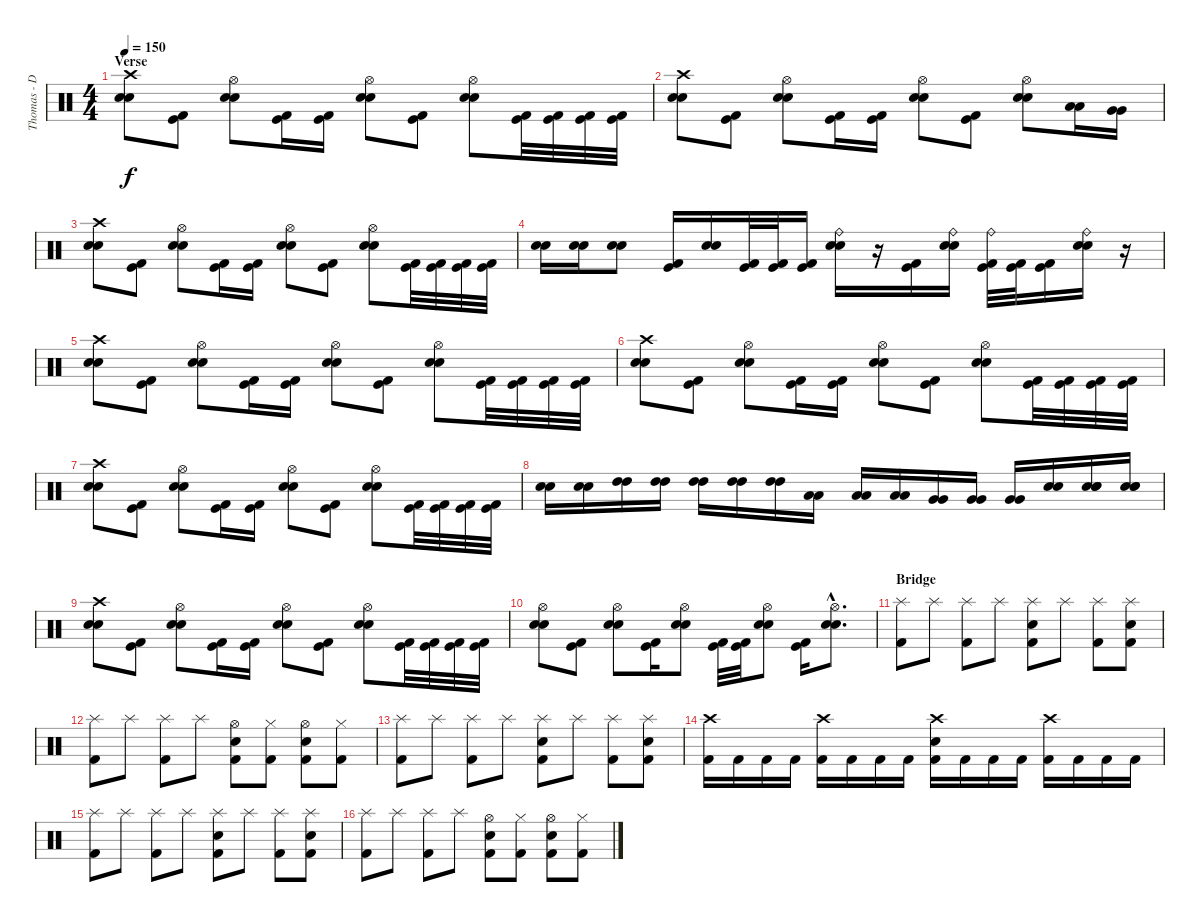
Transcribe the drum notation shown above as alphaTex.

\track ("Thomas - Dr00mz" "Thomas - D") {instrument percussion}
\staff {score}
\articulation defaults
\ts (4 4)
\section ("" "Verse")
\tempo 150
\clef neutral
\ks c
("Crash high (hit)" "Electric Snare (hit)" "Electric Snare (hit)").8{dy f} ("Kick (hit)" "Kick (hit) 2").8 ("Hi-Hat (open)" "Electric Snare (hit)" "Electric Snare (hit)").8 ("Kick (hit)" "Kick (hit) 2").16 ("Kick (hit)" "Kick (hit) 2").16 ("Hi-Hat (open)" "Electric Snare (hit)" "Electric Snare (hit)").8 ("Kick (hit)" "Kick (hit) 2").8 ("Hi-Hat (open)" "Electric Snare (hit)" "Electric Snare (hit)").8 ("Kick (hit)" "Kick (hit) 2").32 ("Kick (hit)" "Kick (hit) 2").32 ("Kick (hit)" "Kick (hit) 2").32 ("Kick (hit)" "Kick (hit) 2").32 |
("Crash high (hit)" "Electric Snare (hit)" "Electric Snare (hit)").8 ("Kick (hit)" "Kick (hit) 2").8 ("Hi-Hat (open)" "Electric Snare (hit)" "Electric Snare (hit)").8 ("Kick (hit)" "Kick (hit) 2").16 ("Kick (hit)" "Kick (hit) 2").16 ("Hi-Hat (open)" "Electric Snare (hit)" "Electric Snare (hit)").8 ("Kick (hit)" "Kick (hit) 2").8 ("Hi-Hat (open)" "Electric Snare (hit)" "Electric Snare (hit)").8 ("Low Tom (hit)" "Low Tom (hit)").16 ("Very Low Tom (hit)" "Very Low Tom (hit)").16 |
("Crash high (hit)" "Electric Snare (hit)" "Electric Snare (hit)").8 ("Kick (hit)" "Kick (hit) 2").8 ("Hi-Hat (open)" "Electric Snare (hit)" "Electric Snare (hit)").8 ("Kick (hit)" "Kick (hit) 2").16 ("Kick (hit)" "Kick (hit) 2").16 ("Hi-Hat (open)" "Electric Snare (hit)" "Electric Snare (hit)").8 ("Kick (hit)" "Kick (hit) 2").8 ("Hi-Hat (open)" "Electric Snare (hit)" "Electric Snare (hit)").8 ("Kick (hit)" "Kick (hit) 2").32 ("Kick (hit)" "Kick (hit) 2").32 ("Kick (hit)" "Kick (hit) 2").32 ("Kick (hit)" "Kick (hit) 2").32 |
("Electric Snare (hit)" "Electric Snare (hit)").16 ("Electric Snare (hit)" "Electric Snare (hit)").16 ("Electric Snare (hit)" "Electric Snare (hit)").8 ("Kick (hit)" "Kick (hit) 2").16 ("Electric Snare (hit)" "Electric Snare (hit)").16 ("Kick (hit)" "Kick (hit) 2").32 ("Kick (hit)" "Kick (hit) 2").32 ("Kick (hit)" "Kick (hit) 2").16 ("Ride (bell)" "Electric Snare (hit)" "Electric Snare (hit)").16 r.16 ("Kick (hit)" "Kick (hit) 2").16 ("Ride (bell)" "Electric Snare (hit)" "Electric Snare (hit)").16 ("Ride (bell)" "Kick (hit)" "Kick (hit) 2").32 ("Kick (hit)" "Kick (hit) 2").32 ("Kick (hit)" "Kick (hit) 2").16 ("Ride (bell)" "Electric Snare (hit)" "Electric Snare (hit)").16 r.16 |
("Crash high (hit)" "Electric Snare (hit)" "Electric Snare (hit)").8 ("Kick (hit)" "Kick (hit) 2").8 ("Hi-Hat (open)" "Electric Snare (hit)" "Electric Snare (hit)").8 ("Kick (hit)" "Kick (hit) 2").16 ("Kick (hit)" "Kick (hit) 2").16 ("Hi-Hat (open)" "Electric Snare (hit)" "Electric Snare (hit)").8 ("Kick (hit)" "Kick (hit) 2").8 ("Hi-Hat (open)" "Electric Snare (hit)" "Electric Snare (hit)").8 ("Kick (hit)" "Kick (hit) 2").32 ("Kick (hit)" "Kick (hit) 2").32 ("Kick (hit)" "Kick (hit) 2").32 ("Kick (hit)" "Kick (hit) 2").32 |
("Crash high (hit)" "Electric Snare (hit)" "Electric Snare (hit)").8 ("Kick (hit)" "Kick (hit) 2").8 ("Hi-Hat (open)" "Electric Snare (hit)" "Electric Snare (hit)").8 ("Kick (hit)" "Kick (hit) 2").16 ("Kick (hit)" "Kick (hit) 2").16 ("Hi-Hat (open)" "Electric Snare (hit)" "Electric Snare (hit)").8 ("Kick (hit)" "Kick (hit) 2").8 ("Hi-Hat (open)" "Electric Snare (hit)" "Electric Snare (hit)").8 ("Kick (hit)" "Kick (hit) 2").32 ("Kick (hit)" "Kick (hit) 2").32 ("Kick (hit)" "Kick (hit) 2").32 ("Kick (hit)" "Kick (hit) 2").32 |
("Crash high (hit)" "Electric Snare (hit)" "Electric Snare (hit)").8 ("Kick (hit)" "Kick (hit) 2").8 ("Hi-Hat (open)" "Electric Snare (hit)" "Electric Snare (hit)").8 ("Kick (hit)" "Kick (hit) 2").16 ("Kick (hit)" "Kick (hit) 2").16 ("Hi-Hat (open)" "Electric Snare (hit)" "Electric Snare (hit)").8 ("Kick (hit)" "Kick (hit) 2").8 ("Hi-Hat (open)" "Electric Snare (hit)" "Electric Snare (hit)").8 ("Kick (hit)" "Kick (hit) 2").32 ("Kick (hit)" "Kick (hit) 2").32 ("Kick (hit)" "Kick (hit) 2").32 ("Kick (hit)" "Kick (hit) 2").32 |
("Electric Snare (hit)" "Electric Snare (hit)").16 ("Electric Snare (hit)" "Electric Snare (hit)").16 ("High Tom (hit)" "High Tom (hit)").16 ("High Tom (hit)" "High Tom (hit)").16 ("High Tom (hit)" "High Tom (hit)").16 ("High Tom (hit)" "High Tom (hit)").16 ("High Tom (hit)" "High Tom (hit)").16 ("Low Tom (hit)" "Low Tom (hit)").16 ("Low Tom (hit)" "Low Tom (hit)").16 ("Low Tom (hit)" "Low Tom (hit)").16 ("Very Low Tom (hit)" "Very Low Tom (hit)").16 ("Very Low Tom (hit)" "Very Low Tom (hit)").16 ("Very Low Tom (hit)" "Very Low Tom (hit)").16 ("Electric Snare (hit)" "Electric Snare (hit)").16 ("Electric Snare (hit)" "Electric Snare (hit)" "Electric Snare (hit)").16 ("Electric Snare (hit)" "Electric Snare (hit)" "Electric Snare (hit)").16 |
("Crash high (hit)" "Electric Snare (hit)" "Electric Snare (hit)").8 ("Kick (hit)" "Kick (hit) 2").8 ("Hi-Hat (open)" "Electric Snare (hit)" "Electric Snare (hit)").8 ("Kick (hit)" "Kick (hit) 2").16 ("Kick (hit)" "Kick (hit) 2").16 ("Hi-Hat (open)" "Electric Snare (hit)" "Electric Snare (hit)").8 ("Kick (hit)" "Kick (hit) 2").8 ("Hi-Hat (open)" "Electric Snare (hit)" "Electric Snare (hit)").8 ("Kick (hit)" "Kick (hit) 2").32 ("Kick (hit)" "Kick (hit) 2").32 ("Kick (hit)" "Kick (hit) 2").32 ("Kick (hit)" "Kick (hit) 2").32 |
("Hi-Hat (open)" "Electric Snare (hit)" "Electric Snare (hit)").8 ("Kick (hit)" "Kick (hit) 2").8 ("Hi-Hat (open)" "Electric Snare (hit)" "Electric Snare (hit)").8 ("Kick (hit)" "Kick (hit) 2").16 ("Hi-Hat (open)" "Electric Snare (hit)" "Electric Snare (hit)").8 ("Kick (hit)" "Kick (hit) 2").32 ("Kick (hit)" "Kick (hit) 2").32 ("Hi-Hat (open)" "Electric Snare (hit)" "Electric Snare (hit)").8 ("Kick (hit)" "Kick (hit) 2").16 ("Hi-Hat (open)"{hac} "Electric Snare (hit)"{hac} "Electric Snare (hit)"{hac}).8{d} |
\section ("" "Bridge")
("Splash (hit)" "Kick (hit) 2").8 "Splash (hit)".8 ("Splash (hit)" "Kick (hit) 2").8 "Splash (hit)".8 ("Splash (hit)" "Electric Snare (hit)" "Kick (hit) 2").8 "Splash (hit)".8 ("Splash (hit)" "Kick (hit) 2").8 ("Splash (hit)" "Electric Snare (hit)" "Kick (hit) 2").8 |
("Splash (hit)" "Kick (hit) 2").8 "Splash (hit)".8 ("Splash (hit)" "Kick (hit) 2").8 "Splash (hit)".8 ("Hi-Hat (open)" "Electric Snare (hit)" "Kick (hit) 2").8 ("Hi-Hat (closed)" "Kick (hit) 2").8 ("Hi-Hat (open)" "Electric Snare (hit)" "Kick (hit) 2").8 ("Hi-Hat (closed)" "Kick (hit) 2").8 |
("Splash (hit)" "Kick (hit) 2").8 "Splash (hit)".8 ("Splash (hit)" "Kick (hit) 2").8 "Splash (hit)".8 ("Splash (hit)" "Electric Snare (hit)" "Kick (hit) 2").8 "Splash (hit)".8 ("Splash (hit)" "Kick (hit) 2").8 ("Splash (hit)" "Electric Snare (hit)" "Kick (hit) 2").8 |
("Crash high (hit)" "Kick (hit) 2").16 "Kick (hit) 2".16 "Kick (hit) 2".16 "Kick (hit) 2".16 ("Crash high (hit)" "Kick (hit) 2").16 "Kick (hit) 2".16 "Kick (hit) 2".16 "Kick (hit) 2".16 ("Crash high (hit)" "Electric Snare (hit)" "Kick (hit) 2").16 "Kick (hit) 2".16 "Kick (hit) 2".16 "Kick (hit) 2".16 ("Crash high (hit)" "Kick (hit) 2").16 "Kick (hit) 2".16 "Kick (hit) 2".16 "Kick (hit) 2".16 |
("Splash (hit)" "Kick (hit) 2").8 "Splash (hit)".8 ("Splash (hit)" "Kick (hit) 2").8 "Splash (hit)".8 ("Splash (hit)" "Electric Snare (hit)" "Kick (hit) 2").8 "Splash (hit)".8 ("Splash (hit)" "Kick (hit) 2").8 ("Splash (hit)" "Electric Snare (hit)" "Kick (hit) 2").8 |
("Splash (hit)" "Kick (hit) 2").8 "Splash (hit)".8 ("Splash (hit)" "Kick (hit) 2").8 "Splash (hit)".8 ("Hi-Hat (open)" "Electric Snare (hit)" "Kick (hit) 2").8 ("Hi-Hat (closed)" "Kick (hit) 2").8 ("Hi-Hat (open)" "Electric Snare (hit)" "Kick (hit) 2").8 ("Hi-Hat (closed)" "Kick (hit) 2").8
